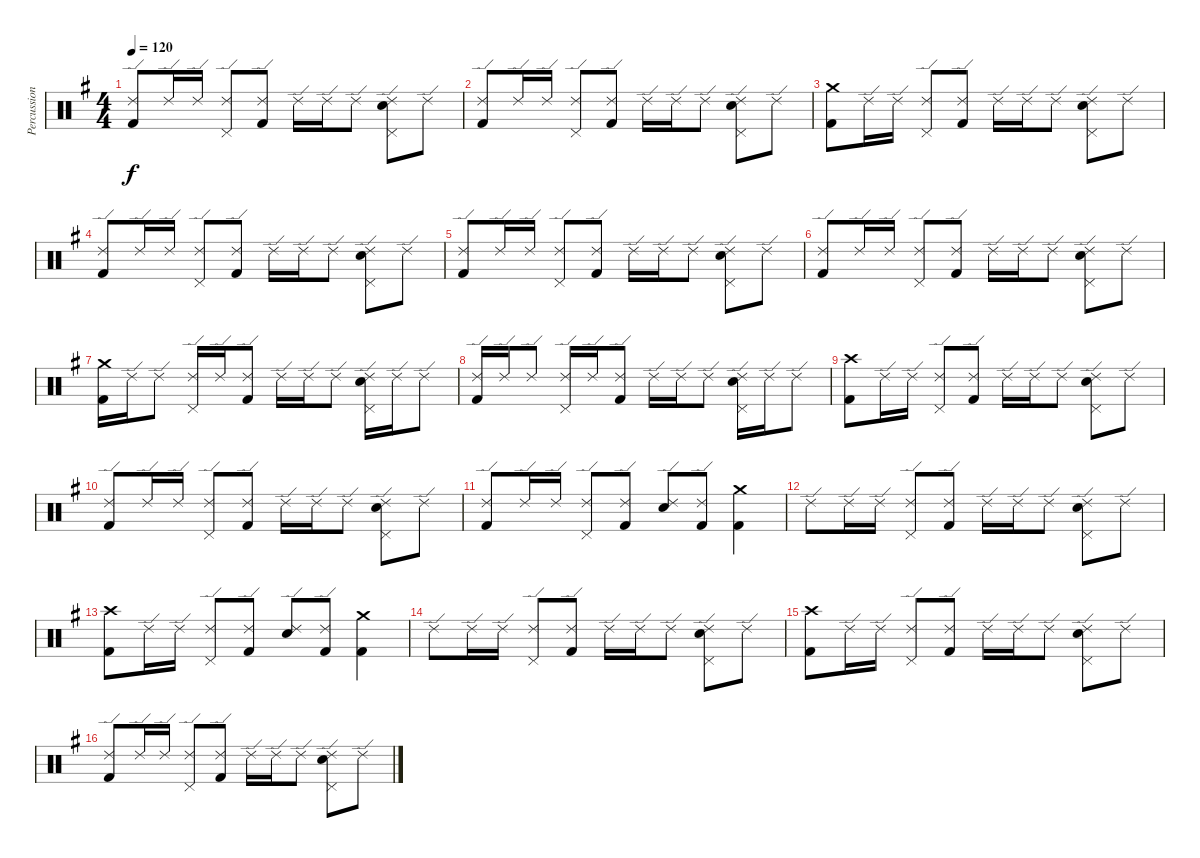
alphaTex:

\track ("Percussion" "Percussion") {instrument percussion}
\staff {score}
\articulation defaults
\ts (4 4)
\tempo 120
\clef neutral
\ks eminor
("Ride (edge) 2" "Kick (hit) 2").8{dy f} "Ride (edge) 2".16 "Ride (edge) 2".16 ("Ride (edge) 2" "Pedal Hi-Hat (hit)").8 ("Ride (edge) 2" "Kick (hit) 2").8 "Ride (edge) 2".16 "Ride (edge) 2".16 "Ride (edge) 2".8 ("Ride (edge) 2" "Pedal Hi-Hat (hit)" "Snare (hit) 2").8 "Ride (edge) 2".8 |
("Ride (edge) 2" "Kick (hit) 2").8 "Ride (edge) 2".16 "Ride (edge) 2".16 ("Ride (edge) 2" "Pedal Hi-Hat (hit)").8 ("Ride (edge) 2" "Kick (hit) 2").8 "Ride (edge) 2".16 "Ride (edge) 2".16 "Ride (edge) 2".8 ("Ride (edge) 2" "Pedal Hi-Hat (hit)" "Snare (hit) 2").8 "Ride (edge) 2".8 |
("Crash medium (hit)" "Kick (hit) 2").8 "Ride (edge) 2".16 "Ride (edge) 2".16 ("Ride (edge) 2" "Pedal Hi-Hat (hit)").8 ("Ride (edge) 2" "Kick (hit) 2").8 "Ride (edge) 2".16 "Ride (edge) 2".16 "Ride (edge) 2".8 ("Ride (edge) 2" "Pedal Hi-Hat (hit)" "Snare (hit) 2").8 "Ride (edge) 2".8 |
("Ride (edge) 2" "Kick (hit) 2").8 "Ride (edge) 2".16 "Ride (edge) 2".16 ("Ride (edge) 2" "Pedal Hi-Hat (hit)").8 ("Ride (edge) 2" "Kick (hit) 2").8 "Ride (edge) 2".16 "Ride (edge) 2".16 "Ride (edge) 2".8 ("Ride (edge) 2" "Pedal Hi-Hat (hit)" "Snare (hit) 2").8 "Ride (edge) 2".8 |
("Ride (edge) 2" "Kick (hit) 2").8 "Ride (edge) 2".16 "Ride (edge) 2".16 ("Ride (edge) 2" "Pedal Hi-Hat (hit)").8 ("Ride (edge) 2" "Kick (hit) 2").8 "Ride (edge) 2".16 "Ride (edge) 2".16 "Ride (edge) 2".8 ("Ride (edge) 2" "Pedal Hi-Hat (hit)" "Snare (hit) 2").8 "Ride (edge) 2".8 |
("Ride (edge) 2" "Kick (hit) 2").8 "Ride (edge) 2".16 "Ride (edge) 2".16 ("Ride (edge) 2" "Pedal Hi-Hat (hit)").8 ("Ride (edge) 2" "Kick (hit) 2").8 "Ride (edge) 2".16 "Ride (edge) 2".16 "Ride (edge) 2".8 ("Ride (edge) 2" "Pedal Hi-Hat (hit)" "Snare (hit) 2").8 "Ride (edge) 2".8 |
("Crash medium (hit)" "Kick (hit) 2").16 "Ride (edge) 2".16 "Ride (edge) 2".8 ("Ride (edge) 2" "Pedal Hi-Hat (hit)").16 "Ride (edge) 2".16 ("Ride (edge) 2" "Kick (hit) 2").8 "Ride (edge) 2".16 "Ride (edge) 2".16 "Ride (edge) 2".8 ("Ride (edge) 2" "Pedal Hi-Hat (hit)" "Snare (hit) 2").16 "Ride (edge) 2".16 "Ride (edge) 2".8 |
("Ride (edge) 2" "Kick (hit) 2").16 "Ride (edge) 2".16 "Ride (edge) 2".8 ("Ride (edge) 2" "Pedal Hi-Hat (hit)").16 "Ride (edge) 2".16 ("Ride (edge) 2" "Kick (hit) 2").8 "Ride (edge) 2".16 "Ride (edge) 2".16 "Ride (edge) 2".8 ("Ride (edge) 2" "Pedal Hi-Hat (hit)" "Snare (hit) 2").16 "Ride (edge) 2".16 "Ride (edge) 2".8 |
("Crash high (hit)" "Kick (hit) 2").8 "Ride (edge) 2".16 "Ride (edge) 2".16 ("Ride (edge) 2" "Pedal Hi-Hat (hit)").8 ("Ride (edge) 2" "Kick (hit) 2").8 "Ride (edge) 2".16 "Ride (edge) 2".16 "Ride (edge) 2".8 ("Ride (edge) 2" "Pedal Hi-Hat (hit)" "Snare (hit) 2").8 "Ride (edge) 2".8 |
("Ride (edge) 2" "Kick (hit) 2").8 "Ride (edge) 2".16 "Ride (edge) 2".16 ("Ride (edge) 2" "Pedal Hi-Hat (hit)").8 ("Ride (edge) 2" "Kick (hit) 2").8 "Ride (edge) 2".16 "Ride (edge) 2".16 "Ride (edge) 2".8 ("Ride (edge) 2" "Pedal Hi-Hat (hit)" "Snare (hit) 2").8 "Ride (edge) 2".8 |
("Ride (edge) 2" "Kick (hit) 2").8 "Ride (edge) 2".16 "Ride (edge) 2".16 ("Ride (edge) 2" "Pedal Hi-Hat (hit)").8 ("Ride (edge) 2" "Kick (hit) 2").8 ("Ride (edge) 2" "Snare (hit) 2").8 ("Ride (edge) 2" "Kick (hit) 2").8 ("Crash medium (hit)" "Kick (hit) 2").4 |
"Ride (edge) 2".8 "Ride (edge) 2".16 "Ride (edge) 2".16 ("Ride (edge) 2" "Pedal Hi-Hat (hit)").8 ("Ride (edge) 2" "Kick (hit) 2").8 "Ride (edge) 2".16 "Ride (edge) 2".16 "Ride (edge) 2".8 ("Ride (edge) 2" "Pedal Hi-Hat (hit)" "Snare (hit) 2").8 "Ride (edge) 2".8 |
("Crash high (hit)" "Kick (hit) 2").8 "Ride (edge) 2".16 "Ride (edge) 2".16 ("Ride (edge) 2" "Pedal Hi-Hat (hit)").8 ("Ride (edge) 2" "Kick (hit) 2").8 ("Ride (edge) 2" "Snare (hit) 2").8 ("Ride (edge) 2" "Kick (hit) 2").8 ("Crash medium (hit)" "Kick (hit) 2").4 |
"Ride (edge) 2".8 "Ride (edge) 2".16 "Ride (edge) 2".16 ("Ride (edge) 2" "Pedal Hi-Hat (hit)").8 ("Ride (edge) 2" "Kick (hit) 2").8 "Ride (edge) 2".16 "Ride (edge) 2".16 "Ride (edge) 2".8 ("Ride (edge) 2" "Pedal Hi-Hat (hit)" "Snare (hit) 2").8 "Ride (edge) 2".8 |
("Crash high (hit)" "Kick (hit) 2").8 "Ride (edge) 2".16 "Ride (edge) 2".16 ("Ride (edge) 2" "Pedal Hi-Hat (hit)").8 ("Ride (edge) 2" "Kick (hit) 2").8 "Ride (edge) 2".16 "Ride (edge) 2".16 "Ride (edge) 2".8 ("Ride (edge) 2" "Pedal Hi-Hat (hit)" "Snare (hit) 2").8 "Ride (edge) 2".8 |
("Ride (edge) 2" "Kick (hit) 2").8 "Ride (edge) 2".16 "Ride (edge) 2".16 ("Ride (edge) 2" "Pedal Hi-Hat (hit)").8 ("Ride (edge) 2" "Kick (hit) 2").8 "Ride (edge) 2".16 "Ride (edge) 2".16 "Ride (edge) 2".8 ("Ride (edge) 2" "Pedal Hi-Hat (hit)" "Snare (hit) 2").8 "Ride (edge) 2".8
